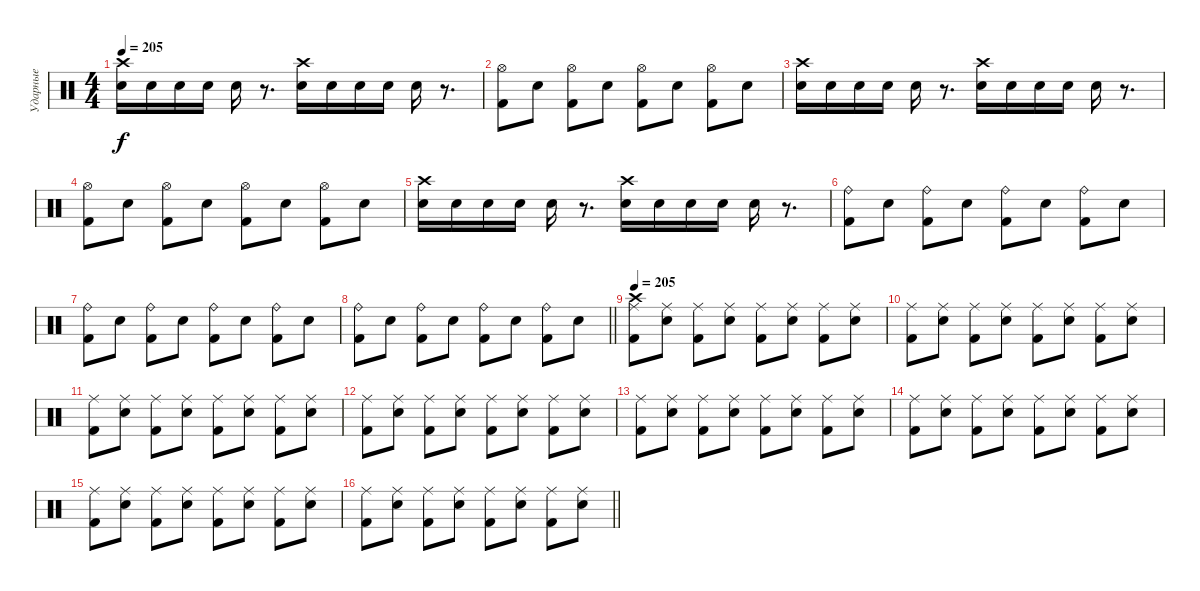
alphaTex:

\track ("Ударные" "Ударные") {instrument percussion}
\staff {score}
\articulation defaults
\ts (4 4)
\tempo 205
\clef neutral
\ks c
("Crash high (hit)" "Snare (hit) 2").16{dy f} "Snare (hit) 2".16 "Snare (hit) 2".16 "Snare (hit) 2".16 "Snare (hit) 2".16 r.8{d} ("Crash high (hit)" "Snare (hit) 2").16 "Snare (hit) 2".16 "Snare (hit) 2".16 "Snare (hit) 2".16 "Snare (hit) 2".16 r.8{d} |
("Hi-Hat (open)" "Kick (hit) 2").8 "Snare (hit) 2".8 ("Hi-Hat (open)" "Kick (hit) 2").8 "Snare (hit) 2".8 ("Hi-Hat (open)" "Kick (hit) 2").8 "Snare (hit) 2".8 ("Hi-Hat (open)" "Kick (hit) 2").8 "Snare (hit) 2".8 |
("Crash high (hit)" "Snare (hit) 2").16 "Snare (hit) 2".16 "Snare (hit) 2".16 "Snare (hit) 2".16 "Snare (hit) 2".16 r.8{d} ("Crash high (hit)" "Snare (hit) 2").16 "Snare (hit) 2".16 "Snare (hit) 2".16 "Snare (hit) 2".16 "Snare (hit) 2".16 r.8{d} |
("Hi-Hat (open)" "Kick (hit) 2").8 "Snare (hit) 2".8 ("Hi-Hat (open)" "Kick (hit) 2").8 "Snare (hit) 2".8 ("Hi-Hat (open)" "Kick (hit) 2").8 "Snare (hit) 2".8 ("Hi-Hat (open)" "Kick (hit) 2").8 "Snare (hit) 2".8 |
("Crash high (hit)" "Snare (hit) 2").16 "Snare (hit) 2".16 "Snare (hit) 2".16 "Snare (hit) 2".16 "Snare (hit) 2".16 r.8{d} ("Crash high (hit)" "Snare (hit) 2").16 "Snare (hit) 2".16 "Snare (hit) 2".16 "Snare (hit) 2".16 "Snare (hit) 2".16 r.8{d} |
("Ride (bell)" "Kick (hit) 2").8 "Snare (hit) 2".8 ("Ride (bell)" "Kick (hit) 2").8 "Snare (hit) 2".8 ("Ride (bell)" "Kick (hit) 2").8 "Snare (hit) 2".8 ("Ride (bell)" "Kick (hit) 2").8 "Snare (hit) 2".8 |
("Ride (bell)" "Kick (hit) 2").8 "Snare (hit) 2".8 ("Ride (bell)" "Kick (hit) 2").8 "Snare (hit) 2".8 ("Ride (bell)" "Kick (hit) 2").8 "Snare (hit) 2".8 ("Ride (bell)" "Kick (hit) 2").8 "Snare (hit) 2".8 |
\barLineRight lightlight
("Ride (bell)" "Kick (hit) 2").8 "Snare (hit) 2".8 ("Ride (bell)" "Kick (hit) 2").8 "Snare (hit) 2".8 ("Ride (bell)" "Kick (hit) 2").8 "Snare (hit) 2".8 ("Ride (bell)" "Kick (hit) 2").8 "Snare (hit) 2".8 |
\tempo 205
("Crash high (hit)" "Ride (middle)" "Kick (hit) 2").8 ("Ride (middle)" "Snare (hit) 2").8 ("Ride (middle)" "Kick (hit) 2").8 ("Ride (middle)" "Snare (hit) 2").8 ("Ride (middle)" "Kick (hit) 2").8 ("Ride (middle)" "Snare (hit) 2").8 ("Ride (middle)" "Kick (hit) 2").8 ("Ride (middle)" "Snare (hit) 2").8 |
("Ride (middle)" "Kick (hit) 2").8 ("Ride (middle)" "Snare (hit) 2").8 ("Ride (middle)" "Kick (hit) 2").8 ("Ride (middle)" "Snare (hit) 2").8 ("Ride (middle)" "Kick (hit) 2").8 ("Ride (middle)" "Snare (hit) 2").8 ("Ride (middle)" "Kick (hit) 2").8 ("Ride (middle)" "Snare (hit) 2").8 |
("Ride (middle)" "Kick (hit) 2").8 ("Ride (middle)" "Snare (hit) 2").8 ("Ride (middle)" "Kick (hit) 2").8 ("Ride (middle)" "Snare (hit) 2").8 ("Ride (middle)" "Kick (hit) 2").8 ("Ride (middle)" "Snare (hit) 2").8 ("Ride (middle)" "Kick (hit) 2").8 ("Ride (middle)" "Snare (hit) 2").8 |
("Ride (middle)" "Kick (hit) 2").8 ("Ride (middle)" "Snare (hit) 2").8 ("Ride (middle)" "Kick (hit) 2").8 ("Ride (middle)" "Snare (hit) 2").8 ("Ride (middle)" "Kick (hit) 2").8 ("Ride (middle)" "Snare (hit) 2").8 ("Ride (middle)" "Kick (hit) 2").8 ("Ride (middle)" "Snare (hit) 2").8 |
("Ride (middle)" "Kick (hit) 2").8 ("Ride (middle)" "Snare (hit) 2").8 ("Ride (middle)" "Kick (hit) 2").8 ("Ride (middle)" "Snare (hit) 2").8 ("Ride (middle)" "Kick (hit) 2").8 ("Ride (middle)" "Snare (hit) 2").8 ("Ride (middle)" "Kick (hit) 2").8 ("Ride (middle)" "Snare (hit) 2").8 |
("Ride (middle)" "Kick (hit) 2").8 ("Ride (middle)" "Snare (hit) 2").8 ("Ride (middle)" "Kick (hit) 2").8 ("Ride (middle)" "Snare (hit) 2").8 ("Ride (middle)" "Kick (hit) 2").8 ("Ride (middle)" "Snare (hit) 2").8 ("Ride (middle)" "Kick (hit) 2").8 ("Ride (middle)" "Snare (hit) 2").8 |
("Ride (middle)" "Kick (hit) 2").8 ("Ride (middle)" "Snare (hit) 2").8 ("Ride (middle)" "Kick (hit) 2").8 ("Ride (middle)" "Snare (hit) 2").8 ("Ride (middle)" "Kick (hit) 2").8 ("Ride (middle)" "Snare (hit) 2").8 ("Ride (middle)" "Kick (hit) 2").8 ("Ride (middle)" "Snare (hit) 2").8 |
\barLineRight lightlight
("Ride (middle)" "Kick (hit) 2").8 ("Ride (middle)" "Snare (hit) 2").8 ("Ride (middle)" "Kick (hit) 2").8 ("Ride (middle)" "Snare (hit) 2").8 ("Ride (middle)" "Kick (hit) 2").8 ("Ride (middle)" "Snare (hit) 2").8 ("Ride (middle)" "Kick (hit) 2").8 ("Ride (middle)" "Snare (hit) 2").8
